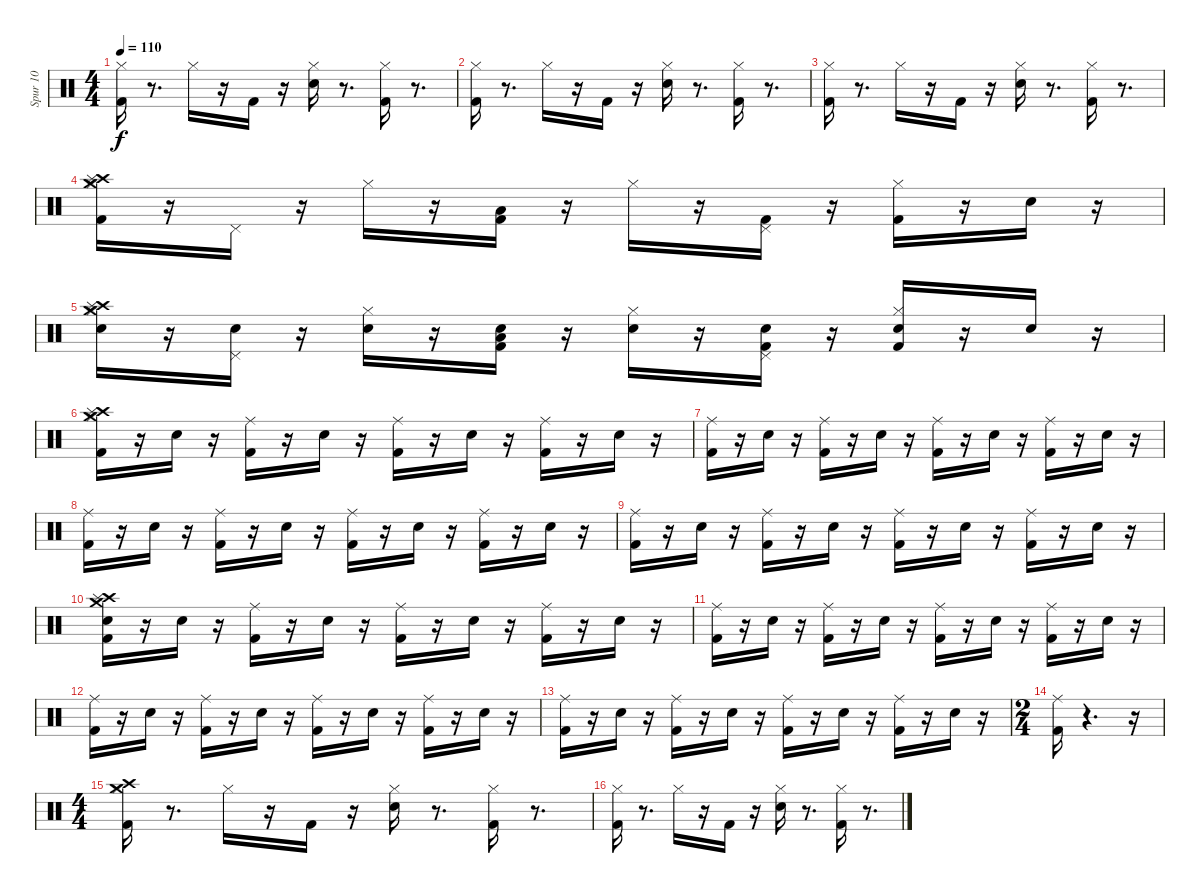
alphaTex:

\track ("Spur 10" "Spur 10") {instrument percussion}
\staff {score}
\articulation defaults
\ts (4 4)
\tempo 110
\clef neutral
\ks c
("Kick (hit) 2" "Hi-Hat (closed)").16{dy f} r.8{d} "Hi-Hat (closed)".16 r.16 "Kick (hit) 2".16 r.16 ("Snare (hit) 2" "Hi-Hat (closed)").16 r.8{d} ("Kick (hit) 2" "Hi-Hat (closed)").16 r.8{d} |
("Kick (hit) 2" "Hi-Hat (closed)").16 r.8{d} "Hi-Hat (closed)".16 r.16 "Kick (hit) 2".16 r.16 ("Snare (hit) 2" "Hi-Hat (closed)").16 r.8{d} ("Kick (hit) 2" "Hi-Hat (closed)").16 r.8{d} |
("Kick (hit) 2" "Hi-Hat (closed)").16 r.8{d} "Hi-Hat (closed)".16 r.16 "Kick (hit) 2".16 r.16 ("Snare (hit) 2" "Hi-Hat (closed)").16 r.8{d} ("Kick (hit) 2" "Hi-Hat (closed)").16 r.8{d} |
("Hi-Hat (closed)" "Kick (hit) 2" "Crash high (hit)" "Splash (hit)" "Crash medium (hit)").16 r.16 "Pedal Hi-Hat (hit)".16 r.16 "Hi-Hat (closed)".16 r.16 ("Kick (hit) 2" "Low Floor Tom (hit)").16 r.16 "Hi-Hat (closed)".16 r.16 ("Kick (hit) 2" "Pedal Hi-Hat (hit)").16 r.16 ("Kick (hit) 2" "Hi-Hat (closed)").16 r.16 "Snare (hit) 2".16 r.16 |
("Snare (hit) 2" "Hi-Hat (closed)" "Crash high (hit)" "Splash (hit)" "Crash medium (hit)").16 r.16 ("Pedal Hi-Hat (hit)" "Snare (hit) 2").16 r.16 ("Hi-Hat (closed)" "Snare (hit) 2").16 r.16 ("Kick (hit) 2" "Low Floor Tom (hit)" "Snare (hit) 2").16 r.16 ("Hi-Hat (closed)" "Snare (hit) 2").16 r.16 ("Kick (hit) 2" "Pedal Hi-Hat (hit)" "Snare (hit) 2").16 r.16 ("Kick (hit) 2" "Hi-Hat (closed)" "Snare (hit) 2").16 r.16 "Snare (hit) 2".16 r.16 |
("Kick (hit) 2" "Hi-Hat (closed)" "Crash high (hit)" "Splash (hit)" "Crash medium (hit)").16 r.16 "Snare (hit) 2".16 r.16 ("Kick (hit) 2" "Ride (middle)").16 r.16 "Snare (hit) 2".16 r.16 ("Kick (hit) 2" "Ride (middle)").16 r.16 "Snare (hit) 2".16 r.16 ("Kick (hit) 2" "Ride (middle)").16 r.16 "Snare (hit) 2".16 r.16 |
("Kick (hit) 2" "Ride (middle)").16 r.16 "Snare (hit) 2".16 r.16 ("Kick (hit) 2" "Ride (middle)").16 r.16 "Snare (hit) 2".16 r.16 ("Kick (hit) 2" "Ride (middle)").16 r.16 "Snare (hit) 2".16 r.16 ("Kick (hit) 2" "Ride (middle)").16 r.16 "Snare (hit) 2".16 r.16 |
("Kick (hit) 2" "Ride (middle)").16 r.16 "Snare (hit) 2".16 r.16 ("Kick (hit) 2" "Ride (middle)").16 r.16 "Snare (hit) 2".16 r.16 ("Kick (hit) 2" "Ride (middle)").16 r.16 "Snare (hit) 2".16 r.16 ("Kick (hit) 2" "Ride (middle)").16 r.16 "Snare (hit) 2".16 r.16 |
("Kick (hit) 2" "Ride (middle)").16 r.16 "Snare (hit) 2".16 r.16 ("Kick (hit) 2" "Ride (middle)").16 r.16 "Snare (hit) 2".16 r.16 ("Kick (hit) 2" "Ride (middle)").16 r.16 "Snare (hit) 2".16 r.16 ("Kick (hit) 2" "Ride (middle)").16 r.16 "Snare (hit) 2".16 r.16 |
("Kick (hit) 2" "Snare (hit) 2" "Crash high (hit)" "Splash (hit)" "Crash medium (hit)").16 r.16 "Snare (hit) 2".16 r.16 ("Kick (hit) 2" "Ride (middle)").16 r.16 "Snare (hit) 2".16 r.16 ("Kick (hit) 2" "Ride (middle)").16 r.16 "Snare (hit) 2".16 r.16 ("Kick (hit) 2" "Ride (middle)").16 r.16 "Snare (hit) 2".16 r.16 |
("Kick (hit) 2" "Ride (middle)").16 r.16 "Snare (hit) 2".16 r.16 ("Kick (hit) 2" "Ride (middle)").16 r.16 "Snare (hit) 2".16 r.16 ("Kick (hit) 2" "Ride (middle)").16 r.16 "Snare (hit) 2".16 r.16 ("Kick (hit) 2" "Ride (middle)").16 r.16 "Snare (hit) 2".16 r.16 |
("Kick (hit) 2" "Ride (middle)").16 r.16 "Snare (hit) 2".16 r.16 ("Kick (hit) 2" "Ride (middle)").16 r.16 "Snare (hit) 2".16 r.16 ("Kick (hit) 2" "Ride (middle)").16 r.16 "Snare (hit) 2".16 r.16 ("Kick (hit) 2" "Ride (middle)").16 r.16 "Snare (hit) 2".16 r.16 |
("Kick (hit) 2" "Ride (middle)").16 r.16 "Snare (hit) 2".16 r.16 ("Kick (hit) 2" "Ride (middle)").16 r.16 "Snare (hit) 2".16 r.16 ("Kick (hit) 2" "Ride (middle)").16 r.16 "Snare (hit) 2".16 r.16 ("Kick (hit) 2" "Ride (middle)").16 r.16 "Snare (hit) 2".16 r.16 |
\ts (2 4)
("Kick (hit) 2" "Ride (middle)").16 r.4{d} r.16 |
\ts (4 4)
("Kick (hit) 2" "Hi-Hat (closed)" "Crash high (hit)" "Crash medium (hit)").16 r.8{d} "Hi-Hat (closed)".16 r.16 "Kick (hit) 2".16 r.16 ("Hi-Hat (closed)" "Snare (hit) 2").16 r.8{d} ("Hi-Hat (closed)" "Kick (hit) 2").16 r.8{d} |
("Hi-Hat (closed)" "Kick (hit) 2").16 r.8{d} "Hi-Hat (closed)".16 r.16 "Kick (hit) 2".16 r.16 ("Hi-Hat (closed)" "Snare (hit) 2").16 r.8{d} ("Hi-Hat (closed)" "Kick (hit) 2").16 r.8{d}
